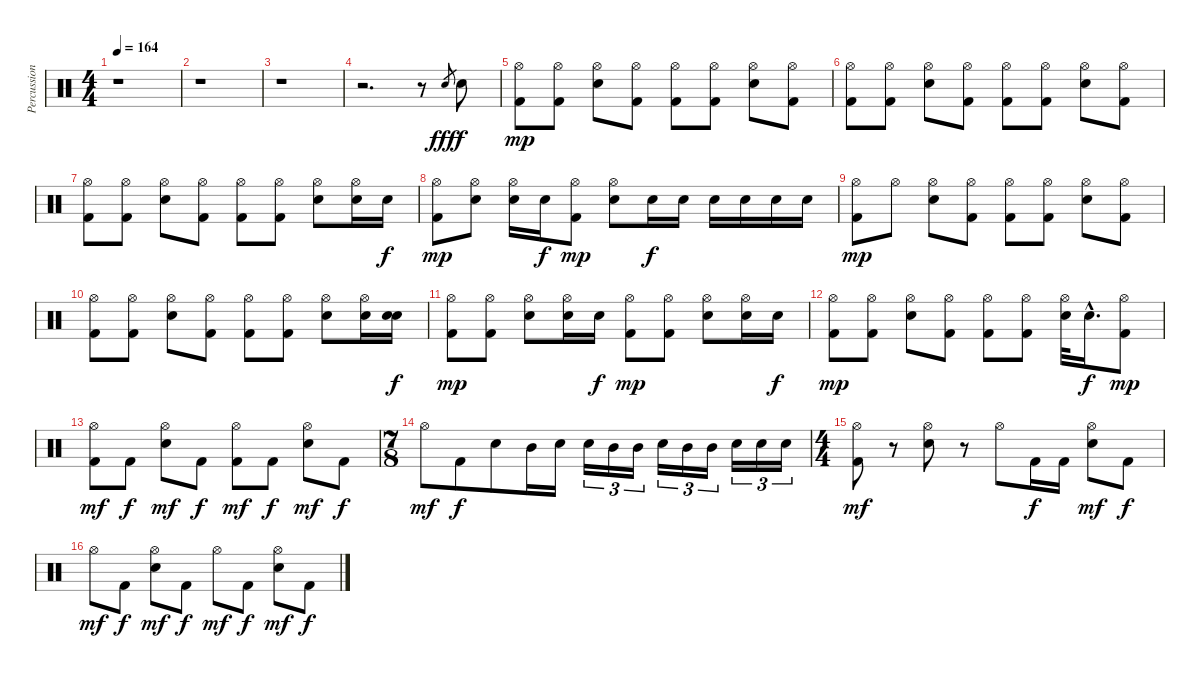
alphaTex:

\track ("Percussion" "Percussion") {instrument percussion}
\staff {score}
\articulation defaults
\ts (4 4)
\tempo 164
\clef neutral
\ks c
r.1{dy fff} |
r.1 |
r.1 |
r.2{d} r.8 "Electric Snare (hit)".8{gr} "Electric Snare (hit)".8{dy f} |
("Hi-Hat (open)" "Kick (hit) 2").8{dy mp} ("Hi-Hat (open)" "Kick (hit) 2").8 ("Hi-Hat (open)" "Electric Snare (hit)").8 ("Hi-Hat (open)" "Kick (hit) 2").8 ("Hi-Hat (open)" "Kick (hit) 2").8 ("Hi-Hat (open)" "Kick (hit) 2").8 ("Hi-Hat (open)" "Electric Snare (hit)").8 ("Hi-Hat (open)" "Kick (hit) 2").8 |
("Hi-Hat (open)" "Kick (hit) 2").8 ("Hi-Hat (open)" "Kick (hit) 2").8 ("Hi-Hat (open)" "Electric Snare (hit)").8 ("Hi-Hat (open)" "Kick (hit) 2").8 ("Hi-Hat (open)" "Kick (hit) 2").8 ("Hi-Hat (open)" "Kick (hit) 2").8 ("Hi-Hat (open)" "Electric Snare (hit)").8 ("Hi-Hat (open)" "Kick (hit) 2").8 |
("Hi-Hat (open)" "Kick (hit) 2").8 ("Hi-Hat (open)" "Kick (hit) 2").8 ("Hi-Hat (open)" "Electric Snare (hit)").8 ("Hi-Hat (open)" "Kick (hit) 2").8 ("Hi-Hat (open)" "Kick (hit) 2").8 ("Hi-Hat (open)" "Kick (hit) 2").8 ("Hi-Hat (open)" "Electric Snare (hit)").8 ("Hi-Hat (open)" "Electric Snare (hit)").16 "Electric Snare (hit)".16{dy f} |
("Hi-Hat (open)" "Kick (hit) 2").8{dy mp} ("Hi-Hat (open)" "Electric Snare (hit)").8 ("Hi-Hat (open)" "Electric Snare (hit)").16 "Electric Snare (hit)".16{dy f} ("Hi-Hat (open)" "Kick (hit) 2").8{dy mp} ("Hi-Hat (open)" "Electric Snare (hit)").8 "Electric Snare (hit)".16{dy f} "Electric Snare (hit)".16 "Electric Snare (hit)".16 "Electric Snare (hit)".16 "Electric Snare (hit)".16 "Electric Snare (hit)".16 |
("Hi-Hat (open)" "Kick (hit) 2").8{dy mp} "Hi-Hat (open)".8 ("Hi-Hat (open)" "Electric Snare (hit)").8 ("Hi-Hat (open)" "Kick (hit) 2").8 ("Hi-Hat (open)" "Kick (hit) 2").8 ("Hi-Hat (open)" "Kick (hit) 2").8 ("Hi-Hat (open)" "Electric Snare (hit)").8 ("Hi-Hat (open)" "Kick (hit) 2").8 |
("Hi-Hat (open)" "Kick (hit) 2").8 ("Hi-Hat (open)" "Kick (hit) 2").8 ("Hi-Hat (open)" "Electric Snare (hit)").8 ("Hi-Hat (open)" "Kick (hit) 2").8 ("Hi-Hat (open)" "Kick (hit) 2").8 ("Hi-Hat (open)" "Kick (hit) 2").8 ("Hi-Hat (open)" "Electric Snare (hit)").8 ("Hi-Hat (open)" "Electric Snare (hit)").16 ("Electric Snare (hit)" "Electric Snare (hit)").16{dy f} |
("Hi-Hat (open)" "Kick (hit) 2").8{dy mp} ("Hi-Hat (open)" "Kick (hit) 2").8 ("Hi-Hat (open)" "Electric Snare (hit)").8 ("Hi-Hat (open)" "Electric Snare (hit)").16 "Electric Snare (hit)".16{dy f} ("Hi-Hat (open)" "Kick (hit) 2").8{dy mp} ("Hi-Hat (open)" "Kick (hit) 2").8 ("Hi-Hat (open)" "Electric Snare (hit)").8 ("Hi-Hat (open)" "Electric Snare (hit)").16 "Electric Snare (hit)".16{dy f} |
("Hi-Hat (open)" "Kick (hit) 2").8{dy mp} ("Hi-Hat (open)" "Kick (hit) 2").8 ("Hi-Hat (open)" "Electric Snare (hit)").8 ("Hi-Hat (open)" "Kick (hit) 2").8 ("Hi-Hat (open)" "Kick (hit) 2").8 ("Hi-Hat (open)" "Kick (hit) 2").8 ("Hi-Hat (open)" "Electric Snare (hit)").32 "Electric Snare (hit)"{hac}.16{d dy f} ("Hi-Hat (open)" "Kick (hit) 2").8{dy mp} |
("Hi-Hat (open)" "Kick (hit) 2").8{dy mf} "Kick (hit) 2".8{dy f} ("Hi-Hat (open)" "Electric Snare (hit)").8{dy mf} "Kick (hit) 2".8{dy f} ("Hi-Hat (open)" "Kick (hit) 2").8{dy mf} "Kick (hit) 2".8{dy f} ("Hi-Hat (open)" "Electric Snare (hit)").8{dy mf} "Kick (hit) 2".8{dy f} |
\ts (7 8)
"Hi-Hat (open)".8{dy mf} "Kick (hit) 2".8{dy f} "Electric Snare (hit)".8 "Mid Tom (hit)".16 "Electric Snare (hit)".16 "Electric Snare (hit)".16{tu (3 2)} "Mid Tom (hit)".16{tu (3 2)} "Mid Tom (hit)".16{tu (3 2)} "Electric Snare (hit)".16{tu (3 2)} "Mid Tom (hit)".16{tu (3 2)} "Mid Tom (hit)".16{tu (3 2)} "Electric Snare (hit)".16{tu (3 2)} "Electric Snare (hit)".16{tu (3 2)} "Electric Snare (hit)".16{tu (3 2)} |
\ts (4 4)
("Hi-Hat (open)" "Kick (hit) 2").8{dy mf} r.8 ("Hi-Hat (open)" "Electric Snare (hit)").8 r.8 "Hi-Hat (open)".8 "Kick (hit) 2".16{dy f} "Kick (hit) 2".16 ("Hi-Hat (open)" "Electric Snare (hit)").8{dy mf} "Kick (hit) 2".8{dy f} |
"Hi-Hat (open)".8{dy mf} "Kick (hit) 2".8{dy f} ("Hi-Hat (open)" "Electric Snare (hit)").8{dy mf} "Kick (hit) 2".8{dy f} "Hi-Hat (open)".8{dy mf} "Kick (hit) 2".8{dy f} ("Hi-Hat (open)" "Electric Snare (hit)").8{dy mf} "Kick (hit) 2".8{dy f}
